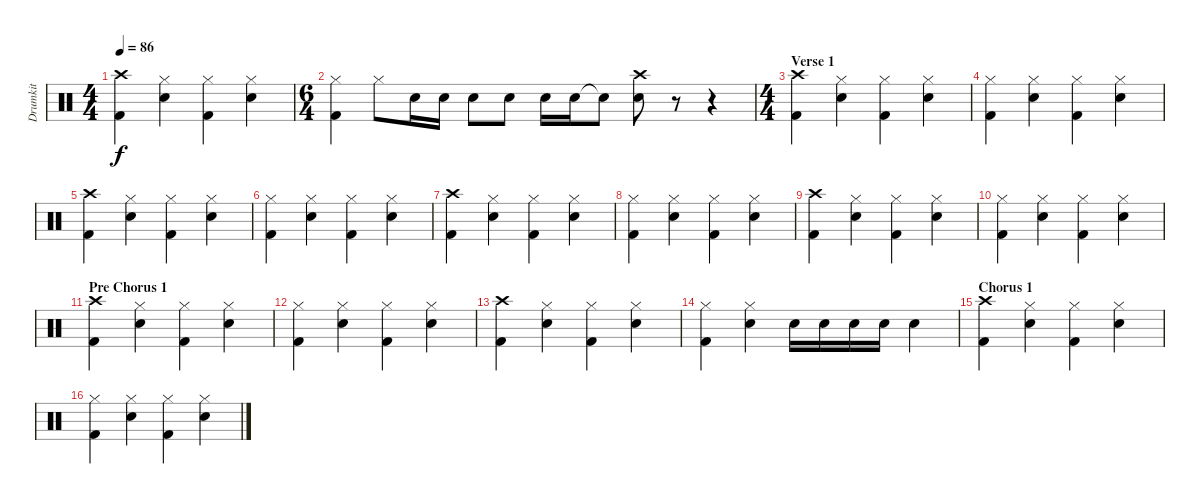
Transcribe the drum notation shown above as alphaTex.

\track ("Drumkit" "Drumkit") {instrument percussion}
\staff {score}
\articulation defaults
\ts (4 4)
\tempo 86
\clef neutral
\ks c
("Kick (hit) 2" "Crash high (hit)").4{dy f} ("Snare (hit) 2" "Hi-Hat (closed)").4 ("Kick (hit) 2" "Hi-Hat (closed)").4 ("Snare (hit) 2" "Hi-Hat (closed)").4 |
\ts (6 4)
("Kick (hit) 2" "Hi-Hat (closed)").4 "Hi-Hat (closed)".8 "Snare (hit) 2".16 "Snare (hit) 2".16 "Snare (hit) 2".8 "Snare (hit) 2".8 "Snare (hit) 2".16 "Snare (hit) 2".16 "Snare (hit) 2"{t}.8 ("Snare (hit) 2" "Crash high (hit)").8 r.8 r.4 |
\ts (4 4)
\section ("" "Verse 1")
("Kick (hit) 2" "Crash high (hit)").4 ("Snare (hit) 2" "Hi-Hat (closed)").4 ("Kick (hit) 2" "Hi-Hat (closed)").4 ("Snare (hit) 2" "Hi-Hat (closed)").4 |
("Kick (hit) 2" "Hi-Hat (closed)").4 ("Snare (hit) 2" "Hi-Hat (closed)").4 ("Kick (hit) 2" "Hi-Hat (closed)").4 ("Snare (hit) 2" "Hi-Hat (closed)").4 |
("Kick (hit) 2" "Crash high (hit)").4 ("Snare (hit) 2" "Hi-Hat (closed)").4 ("Kick (hit) 2" "Hi-Hat (closed)").4 ("Snare (hit) 2" "Hi-Hat (closed)").4 |
("Kick (hit) 2" "Hi-Hat (closed)").4 ("Snare (hit) 2" "Hi-Hat (closed)").4 ("Kick (hit) 2" "Hi-Hat (closed)").4 ("Snare (hit) 2" "Hi-Hat (closed)").4 |
("Kick (hit) 2" "Crash high (hit)").4 ("Snare (hit) 2" "Hi-Hat (closed)").4 ("Kick (hit) 2" "Hi-Hat (closed)").4 ("Snare (hit) 2" "Hi-Hat (closed)").4 |
("Kick (hit) 2" "Hi-Hat (closed)").4 ("Snare (hit) 2" "Hi-Hat (closed)").4 ("Kick (hit) 2" "Hi-Hat (closed)").4 ("Snare (hit) 2" "Hi-Hat (closed)").4 |
("Kick (hit) 2" "Crash high (hit)").4 ("Snare (hit) 2" "Hi-Hat (closed)").4 ("Kick (hit) 2" "Hi-Hat (closed)").4 ("Snare (hit) 2" "Hi-Hat (closed)").4 |
("Kick (hit) 2" "Hi-Hat (closed)").4 ("Snare (hit) 2" "Hi-Hat (closed)").4 ("Kick (hit) 2" "Hi-Hat (closed)").4 ("Snare (hit) 2" "Hi-Hat (closed)").4 |
\section ("" "Pre Chorus 1")
("Kick (hit) 2" "Crash high (hit)").4 ("Snare (hit) 2" "Hi-Hat (closed)").4 ("Kick (hit) 2" "Hi-Hat (closed)").4 ("Snare (hit) 2" "Hi-Hat (closed)").4 |
("Kick (hit) 2" "Hi-Hat (closed)").4 ("Snare (hit) 2" "Hi-Hat (closed)").4 ("Kick (hit) 2" "Hi-Hat (closed)").4 ("Snare (hit) 2" "Hi-Hat (closed)").4 |
("Kick (hit) 2" "Crash high (hit)").4 ("Snare (hit) 2" "Hi-Hat (closed)").4 ("Kick (hit) 2" "Hi-Hat (closed)").4 ("Snare (hit) 2" "Hi-Hat (closed)").4 |
("Kick (hit) 2" "Hi-Hat (closed)").4 ("Snare (hit) 2" "Hi-Hat (closed)").4 "Snare (hit) 2".16 "Snare (hit) 2".16 "Snare (hit) 2".16 "Snare (hit) 2".16 "Snare (hit) 2".4 |
\section ("" "Chorus 1")
("Kick (hit) 2" "Crash high (hit)").4 ("Snare (hit) 2" "Hi-Hat (closed)").4 ("Kick (hit) 2" "Hi-Hat (closed)").4 ("Snare (hit) 2" "Hi-Hat (closed)").4 |
("Kick (hit) 2" "Hi-Hat (closed)").4 ("Snare (hit) 2" "Hi-Hat (closed)").4 ("Kick (hit) 2" "Hi-Hat (closed)").4 ("Snare (hit) 2" "Hi-Hat (closed)").4
